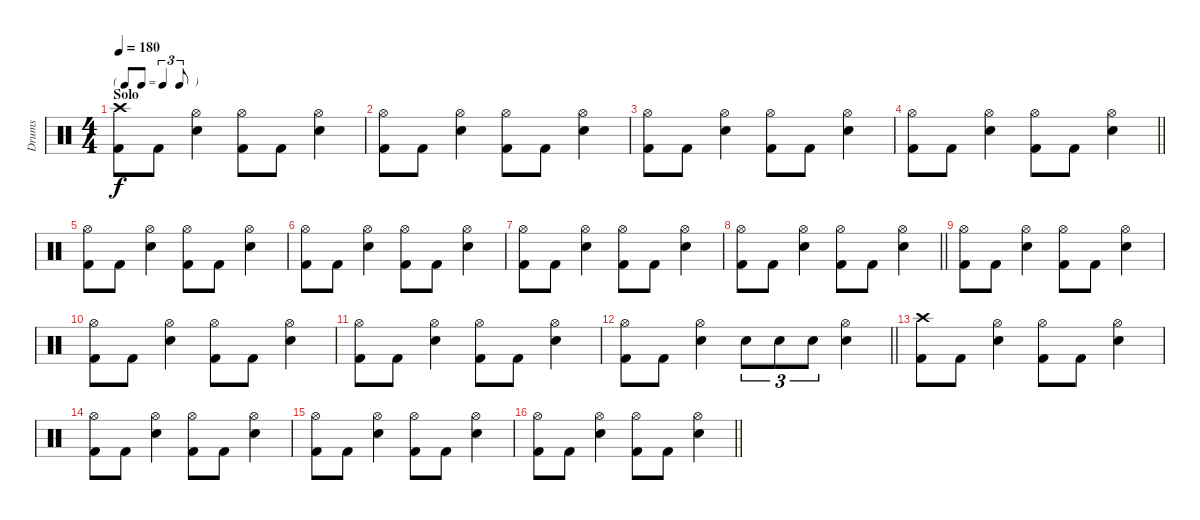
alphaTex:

\track ("Drums" "Drums") {instrument percussion}
\staff {score}
\articulation defaults
\ts (4 4)
\tf triplet8th
\section ("" "Solo")
\tempo 180
\clef neutral
\ks c
("Crash high (hit)" "Kick (hit) 2").8{dy f} "Kick (hit) 2".8 ("Hi-Hat (open)" "Snare (hit) 2").4 ("Hi-Hat (open)" "Kick (hit) 2").8 "Kick (hit) 2".8 ("Hi-Hat (open)" "Snare (hit) 2").4 |
("Hi-Hat (open)" "Kick (hit) 2").8 "Kick (hit) 2".8 ("Hi-Hat (open)" "Snare (hit) 2").4 ("Hi-Hat (open)" "Kick (hit) 2").8 "Kick (hit) 2".8 ("Hi-Hat (open)" "Snare (hit) 2").4 |
("Hi-Hat (open)" "Kick (hit) 2").8 "Kick (hit) 2".8 ("Hi-Hat (open)" "Snare (hit) 2").4 ("Hi-Hat (open)" "Kick (hit) 2").8 "Kick (hit) 2".8 ("Hi-Hat (open)" "Snare (hit) 2").4 |
\barLineRight lightlight
("Hi-Hat (open)" "Kick (hit) 2").8 "Kick (hit) 2".8 ("Hi-Hat (open)" "Snare (hit) 2").4 ("Hi-Hat (open)" "Kick (hit) 2").8 "Kick (hit) 2".8 ("Hi-Hat (open)" "Snare (hit) 2").4 |
("Hi-Hat (open)" "Kick (hit) 2").8 "Kick (hit) 2".8 ("Hi-Hat (open)" "Snare (hit) 2").4 ("Hi-Hat (open)" "Kick (hit) 2").8 "Kick (hit) 2".8 ("Hi-Hat (open)" "Snare (hit) 2").4 |
("Hi-Hat (open)" "Kick (hit) 2").8 "Kick (hit) 2".8 ("Hi-Hat (open)" "Snare (hit) 2").4 ("Hi-Hat (open)" "Kick (hit) 2").8 "Kick (hit) 2".8 ("Hi-Hat (open)" "Snare (hit) 2").4 |
("Hi-Hat (open)" "Kick (hit) 2").8 "Kick (hit) 2".8 ("Hi-Hat (open)" "Snare (hit) 2").4 ("Hi-Hat (open)" "Kick (hit) 2").8 "Kick (hit) 2".8 ("Hi-Hat (open)" "Snare (hit) 2").4 |
\barLineRight lightlight
("Hi-Hat (open)" "Kick (hit) 2").8 "Kick (hit) 2".8 ("Hi-Hat (open)" "Snare (hit) 2").4 ("Hi-Hat (open)" "Kick (hit) 2").8 "Kick (hit) 2".8 ("Hi-Hat (open)" "Snare (hit) 2").4 |
("Hi-Hat (open)" "Kick (hit) 2").8 "Kick (hit) 2".8 ("Hi-Hat (open)" "Snare (hit) 2").4 ("Hi-Hat (open)" "Kick (hit) 2").8 "Kick (hit) 2".8 ("Hi-Hat (open)" "Snare (hit) 2").4 |
("Hi-Hat (open)" "Kick (hit) 2").8 "Kick (hit) 2".8 ("Hi-Hat (open)" "Snare (hit) 2").4 ("Hi-Hat (open)" "Kick (hit) 2").8 "Kick (hit) 2".8 ("Hi-Hat (open)" "Snare (hit) 2").4 |
("Hi-Hat (open)" "Kick (hit) 2").8 "Kick (hit) 2".8 ("Hi-Hat (open)" "Snare (hit) 2").4 ("Hi-Hat (open)" "Kick (hit) 2").8 "Kick (hit) 2".8 ("Hi-Hat (open)" "Snare (hit) 2").4 |
\barLineRight lightlight
("Hi-Hat (open)" "Kick (hit) 2").8 "Kick (hit) 2".8 ("Hi-Hat (open)" "Snare (hit) 2").4 "Snare (hit) 2".8{tu (3 2)} "Snare (hit) 2".8{tu (3 2)} "Snare (hit) 2".8{tu (3 2)} ("Hi-Hat (open)" "Snare (hit) 2").4 |
("Crash high (hit)" "Kick (hit) 2").8 "Kick (hit) 2".8 ("Hi-Hat (open)" "Snare (hit) 2").4 ("Hi-Hat (open)" "Kick (hit) 2").8 "Kick (hit) 2".8 ("Hi-Hat (open)" "Snare (hit) 2").4 |
("Hi-Hat (open)" "Kick (hit) 2").8 "Kick (hit) 2".8 ("Hi-Hat (open)" "Snare (hit) 2").4 ("Hi-Hat (open)" "Kick (hit) 2").8 "Kick (hit) 2".8 ("Hi-Hat (open)" "Snare (hit) 2").4 |
("Hi-Hat (open)" "Kick (hit) 2").8 "Kick (hit) 2".8 ("Hi-Hat (open)" "Snare (hit) 2").4 ("Hi-Hat (open)" "Kick (hit) 2").8 "Kick (hit) 2".8 ("Hi-Hat (open)" "Snare (hit) 2").4 |
\barLineRight lightlight
("Hi-Hat (open)" "Kick (hit) 2").8 "Kick (hit) 2".8 ("Hi-Hat (open)" "Snare (hit) 2").4 ("Hi-Hat (open)" "Kick (hit) 2").8 "Kick (hit) 2".8 ("Hi-Hat (open)" "Snare (hit) 2").4
